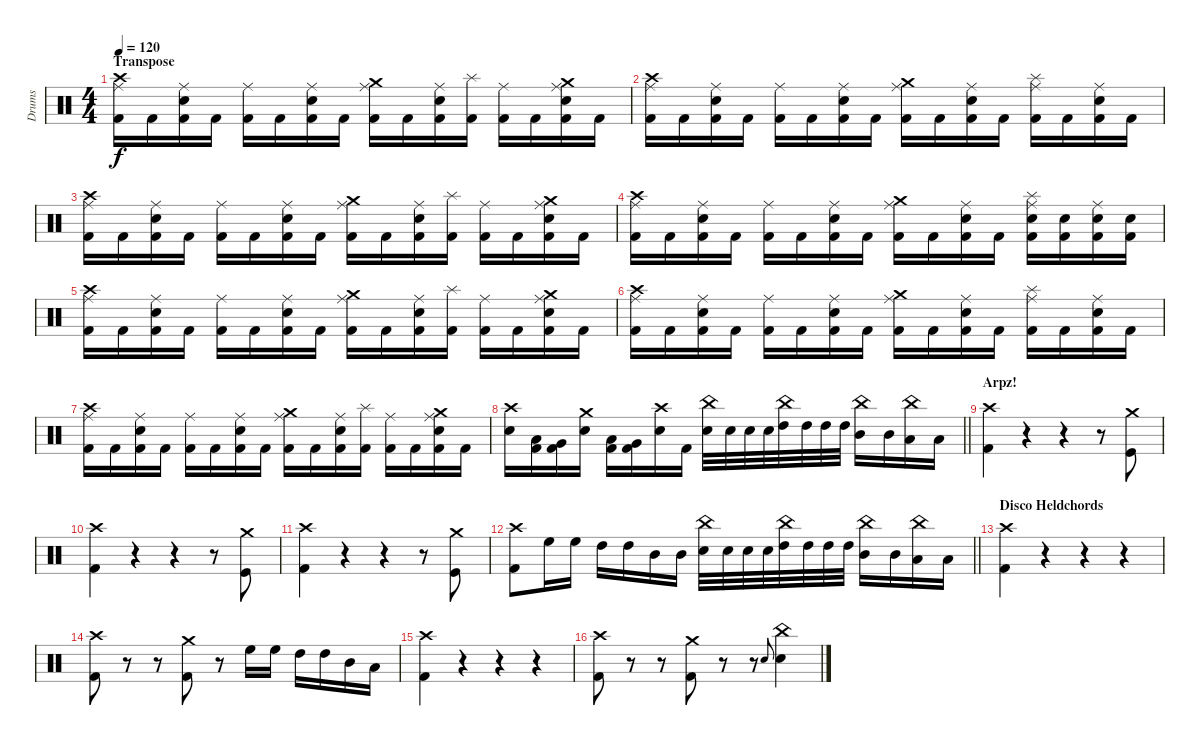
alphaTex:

\track ("Drums" "Drums") {instrument percussion}
\staff {score}
\articulation defaults
\ts (4 4)
\section ("" "Transpose")
\tempo 120
\clef neutral
\ks c
("Crash high (hit)" "Ride (middle)" "Kick (hit) 2").16{dy f} "Kick (hit) 2".16 ("Ride (middle)" "Snare (hit) 2" "Kick (hit) 2").16 "Kick (hit) 2".16 ("Ride (middle)" "Kick (hit) 2").16 "Kick (hit) 2".16 ("Ride (middle)" "Snare (hit) 2" "Kick (hit) 2").16 "Kick (hit) 2".16 ("Crash medium (hit)" "Ride (middle)" "Kick (hit) 2").16 "Kick (hit) 2".16 ("Ride (middle)" "Snare (hit) 2" "Kick (hit) 2").16 ("Splash (hit)" "Kick (hit) 2").16 ("Ride (middle)" "Kick (hit) 2").16 "Kick (hit) 2".16 ("Crash medium (hit)" "Ride (middle)" "Snare (hit) 2" "Kick (hit) 2").16 "Kick (hit) 2".16 |
("Crash high (hit)" "Ride (middle)" "Kick (hit) 2").16 "Kick (hit) 2".16 ("Ride (middle)" "Snare (hit) 2" "Kick (hit) 2").16 "Kick (hit) 2".16 ("Ride (middle)" "Kick (hit) 2").16 "Kick (hit) 2".16 ("Ride (middle)" "Snare (hit) 2" "Kick (hit) 2").16 "Kick (hit) 2".16 ("Crash medium (hit)" "Ride (middle)" "Kick (hit) 2").16 "Kick (hit) 2".16 ("Ride (middle)" "Snare (hit) 2" "Kick (hit) 2").16 "Kick (hit) 2".16 ("Splash (hit)" "Ride (middle)" "Kick (hit) 2").16 "Kick (hit) 2".16 ("Ride (middle)" "Snare (hit) 2" "Kick (hit) 2").16 "Kick (hit) 2".16 |
("Crash high (hit)" "Ride (middle)" "Kick (hit) 2").16 "Kick (hit) 2".16 ("Ride (middle)" "Snare (hit) 2" "Kick (hit) 2").16 "Kick (hit) 2".16 ("Ride (middle)" "Kick (hit) 2").16 "Kick (hit) 2".16 ("Ride (middle)" "Snare (hit) 2" "Kick (hit) 2").16 "Kick (hit) 2".16 ("Crash medium (hit)" "Ride (middle)" "Kick (hit) 2").16 "Kick (hit) 2".16 ("Ride (middle)" "Snare (hit) 2" "Kick (hit) 2").16 ("Splash (hit)" "Kick (hit) 2").16 ("Ride (middle)" "Kick (hit) 2").16 "Kick (hit) 2".16 ("Crash medium (hit)" "Ride (middle)" "Snare (hit) 2" "Kick (hit) 2").16 "Kick (hit) 2".16 |
("Crash high (hit)" "Ride (middle)" "Kick (hit) 2").16 "Kick (hit) 2".16 ("Ride (middle)" "Snare (hit) 2" "Kick (hit) 2").16 "Kick (hit) 2".16 ("Ride (middle)" "Kick (hit) 2").16 "Kick (hit) 2".16 ("Ride (middle)" "Snare (hit) 2" "Kick (hit) 2").16 "Kick (hit) 2".16 ("Crash medium (hit)" "Ride (middle)" "Kick (hit) 2").16 "Kick (hit) 2".16 ("Ride (middle)" "Snare (hit) 2" "Kick (hit) 2").16 "Kick (hit) 2".16 ("Splash (hit)" "Ride (middle)" "Snare (hit) 2" "Kick (hit) 2").16 ("Snare (hit) 2" "Kick (hit) 2").16 ("Ride (middle)" "Snare (hit) 2" "Kick (hit) 2").16 ("Snare (hit) 2" "Kick (hit) 2").16 |
("Crash high (hit)" "Ride (middle)" "Kick (hit) 2").16 "Kick (hit) 2".16 ("Ride (middle)" "Snare (hit) 2" "Kick (hit) 2").16 "Kick (hit) 2".16 ("Ride (middle)" "Kick (hit) 2").16 "Kick (hit) 2".16 ("Ride (middle)" "Snare (hit) 2" "Kick (hit) 2").16 "Kick (hit) 2".16 ("Crash medium (hit)" "Ride (middle)" "Kick (hit) 2").16 "Kick (hit) 2".16 ("Ride (middle)" "Snare (hit) 2" "Kick (hit) 2").16 ("Splash (hit)" "Kick (hit) 2").16 ("Ride (middle)" "Kick (hit) 2").16 "Kick (hit) 2".16 ("Crash medium (hit)" "Ride (middle)" "Snare (hit) 2" "Kick (hit) 2").16 "Kick (hit) 2".16 |
("Crash high (hit)" "Ride (middle)" "Kick (hit) 2").16 "Kick (hit) 2".16 ("Ride (middle)" "Snare (hit) 2" "Kick (hit) 2").16 "Kick (hit) 2".16 ("Ride (middle)" "Kick (hit) 2").16 "Kick (hit) 2".16 ("Ride (middle)" "Snare (hit) 2" "Kick (hit) 2").16 "Kick (hit) 2".16 ("Crash medium (hit)" "Ride (middle)" "Kick (hit) 2").16 "Kick (hit) 2".16 ("Ride (middle)" "Snare (hit) 2" "Kick (hit) 2").16 "Kick (hit) 2".16 ("Splash (hit)" "Ride (middle)" "Kick (hit) 2").16 "Kick (hit) 2".16 ("Ride (middle)" "Snare (hit) 2" "Kick (hit) 2").16 "Kick (hit) 2".16 |
("Crash high (hit)" "Ride (middle)" "Kick (hit) 2").16 "Kick (hit) 2".16 ("Ride (middle)" "Snare (hit) 2" "Kick (hit) 2").16 "Kick (hit) 2".16 ("Ride (middle)" "Kick (hit) 2").16 "Kick (hit) 2".16 ("Ride (middle)" "Snare (hit) 2" "Kick (hit) 2").16 "Kick (hit) 2".16 ("Crash medium (hit)" "Ride (middle)" "Kick (hit) 2").16 "Kick (hit) 2".16 ("Ride (middle)" "Snare (hit) 2" "Kick (hit) 2").16 ("Splash (hit)" "Kick (hit) 2").16 ("Ride (middle)" "Kick (hit) 2").16 "Kick (hit) 2".16 ("Crash medium (hit)" "Ride (middle)" "Snare (hit) 2" "Kick (hit) 2").16 "Kick (hit) 2".16 |
\barLineRight lightlight
("Crash high (hit)" "Snare (hit) 2").16 ("Low Tom (hit)" "Kick (hit) 2").16 ("Very Low Tom (hit)" "Kick (hit) 2").16 ("Crash medium (hit)" "Snare (hit) 2").16 ("Low Tom (hit)" "Kick (hit) 2").16 ("Very Low Tom (hit)" "Kick (hit) 2").16 ("Crash high (hit)" "Snare (hit) 2").16 "Kick (hit) 2".16 ("China (hit)" "Snare (hit) 2").32 "Snare (hit) 2".32 "Snare (hit) 2".32 "Snare (hit) 2".32 ("China (hit)" "High Tom (hit)").32 "High Tom (hit)".32 "High Tom (hit)".32 "High Tom (hit)".32 ("China (hit)" "Mid Tom (hit)").16 "Mid Tom (hit)".16 ("China (hit)" "Low Tom (hit)").16 "Low Tom (hit)".16 |
\section ("" "Arpz!")
("Crash high (hit)" "Kick (hit) 2").4 r.4 r.4 r.8 ("Crash medium (hit)" "Kick (hit)").8 |
("Crash high (hit)" "Kick (hit) 2").4 r.4 r.4 r.8 ("Crash medium (hit)" "Kick (hit)").8 |
("Crash high (hit)" "Kick (hit) 2").4 r.4 r.4 r.8 ("Crash medium (hit)" "Kick (hit)").8 |
\barLineRight lightlight
("Crash high (hit)" "Kick (hit) 2").8 "High Floor Tom (hit)".16 "High Floor Tom (hit)".16 "High Tom (hit)".16 "High Tom (hit)".16 "Mid Tom (hit)".16 "Mid Tom (hit)".16 ("China (hit)" "Snare (hit) 2").32 "Snare (hit) 2".32 "Snare (hit) 2".32 "Snare (hit) 2".32 ("China (hit)" "High Tom (hit)").32 "High Tom (hit)".32 "High Tom (hit)".32 "High Tom (hit)".32 ("China (hit)" "Mid Tom (hit)").16 "Mid Tom (hit)".16 ("China (hit)" "Low Tom (hit)").16 "Low Tom (hit)".16 |
\section ("" "Disco Heldchords")
("Crash high (hit)" "Kick (hit) 2").4 r.4 r.4 r.4 |
("Crash high (hit)" "Kick (hit) 2").8 r.8 r.8 ("Crash medium (hit)" "Kick (hit) 2").8 r.8 "High Floor Tom (hit)".16 "High Floor Tom (hit)".16 "High Tom (hit)".16 "High Tom (hit)".16 "Mid Tom (hit)".16 "Low Tom (hit)".16 |
("Crash high (hit)" "Kick (hit) 2").4 r.4 r.4 r.4 |
("Crash high (hit)" "Kick (hit) 2").8 r.8 r.8 ("Crash medium (hit)" "Kick (hit) 2").8 r.8 r.8 "Snare (hit) 2".8{gr onbeat} ("China (hit)" "Snare (hit) 2").4
